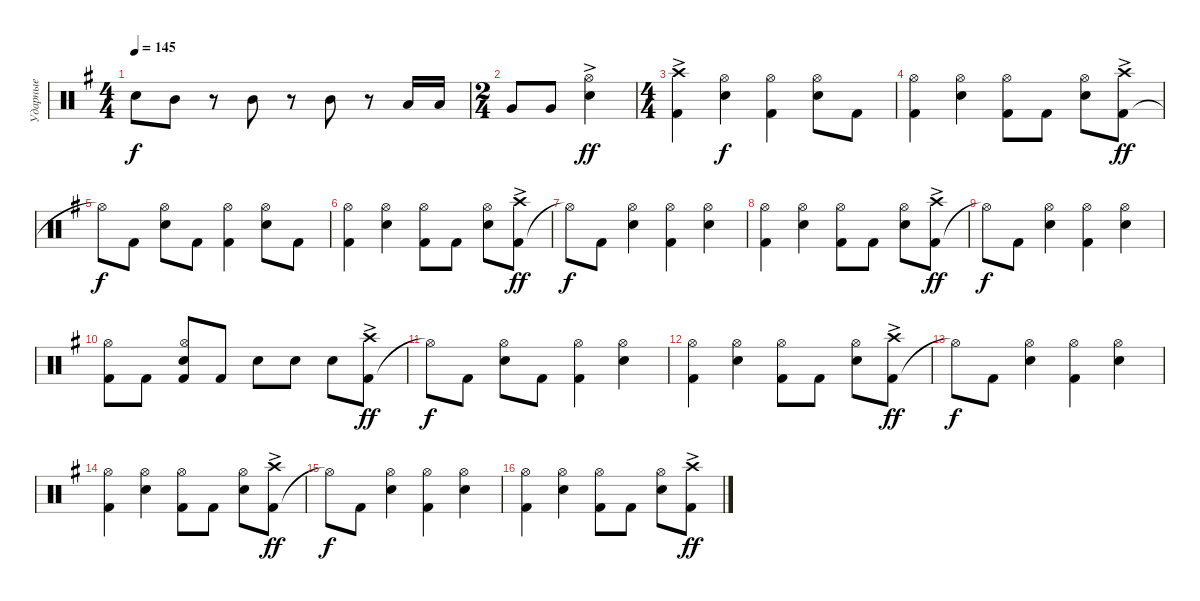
\track ("Ударные" "Ударные") {instrument percussion}
\staff {score}
\articulation defaults
\ts (4 4)
\tempo 145
\clef neutral
\ks g "Snare (hit) 2".8{dy f} "Mid Tom (hit)".8
r.8 "Mid Tom (hit)".8 r.8 "Mid Tom (hit)".8 r.8 "Low Tom (hit)".16 "Low Tom (hit)".16 |
\ts (2 4)
"Very Low Tom (hit)".8 "Very Low Tom (hit)".8 ("Snare (hit) 2" "Hi-Hat (open)"{ac}).4{dy ff} |
\ts (4 4)
("Kick (hit) 2" "Crash high (hit)"{ac}).4 ("Snare (hit) 2" "Hi-Hat (open)").4{dy f} ("Kick (hit) 2" "Hi-Hat (open)").4 ("Snare (hit) 2" "Hi-Hat (open)").8 "Kick (hit) 2".8 |
("Kick (hit) 2" "Hi-Hat (open)").4 ("Snare (hit) 2" "Hi-Hat (open)").4 ("Kick (hit) 2" "Hi-Hat (open)").8 "Kick (hit) 2".8 ("Snare (hit) 2" "Hi-Hat (open)").8 ("Kick (hit) 2" "Crash high (hit)"{ac}).8{dy ff} |
"Hi-Hat (open)"{t}.8{dy f} "Kick (hit) 2".8 ("Snare (hit) 2" "Hi-Hat (open)").8 "Kick (hit) 2".8 ("Kick (hit) 2" "Hi-Hat (open)").4 ("Snare (hit) 2" "Hi-Hat (open)").8 "Kick (hit) 2".8 |
("Kick (hit) 2" "Hi-Hat (open)").4 ("Snare (hit) 2" "Hi-Hat (open)").4 ("Kick (hit) 2" "Hi-Hat (open)").8 "Kick (hit) 2".8 ("Snare (hit) 2" "Hi-Hat (open)").8 ("Kick (hit) 2" "Crash high (hit)"{ac}).8{dy ff} |
"Hi-Hat (open)"{t}.8{dy f} "Kick (hit) 2".8 ("Snare (hit) 2" "Hi-Hat (open)").4 ("Kick (hit) 2" "Hi-Hat (open)").4 ("Snare (hit) 2" "Hi-Hat (open)").4 |
("Kick (hit) 2" "Hi-Hat (open)").4 ("Snare (hit) 2" "Hi-Hat (open)").4 ("Kick (hit) 2" "Hi-Hat (open)").8 "Kick (hit) 2".8 ("Snare (hit) 2" "Hi-Hat (open)").8 ("Kick (hit) 2" "Crash high (hit)"{ac}).8{dy ff} |
"Hi-Hat (open)"{t}.8{dy f} "Kick (hit) 2".8 ("Snare (hit) 2" "Hi-Hat (open)").4 ("Kick (hit) 2" "Hi-Hat (open)").4 ("Snare (hit) 2" "Hi-Hat (open)").4 |
("Kick (hit) 2" "Hi-Hat (open)").8 "Kick (hit) 2".8 ("Kick (hit) 2" "Snare (hit) 2" "Hi-Hat (open)").8 "Kick (hit) 2".8 "Snare (hit) 2".8 "Snare (hit) 2".8 "Snare (hit) 2".8 ("Kick (hit) 2" "Crash high (hit)"{ac}).8{dy ff} |
"Hi-Hat (open)"{t}.8{dy f} "Kick (hit) 2".8 ("Snare (hit) 2" "Hi-Hat (open)").8 "Kick (hit) 2".8 ("Kick (hit) 2" "Hi-Hat (open)").4 ("Snare (hit) 2" "Hi-Hat (open)").4 |
("Kick (hit) 2" "Hi-Hat (open)").4 ("Snare (hit) 2" "Hi-Hat (open)").4 ("Kick (hit) 2" "Hi-Hat (open)").8 "Kick (hit) 2".8 ("Snare (hit) 2" "Hi-Hat (open)").8 ("Kick (hit) 2" "Crash high (hit)"{ac}).8{dy ff} |
"Hi-Hat (open)"{t}.8{dy f} "Kick (hit) 2".8 ("Snare (hit) 2" "Hi-Hat (open)").4 ("Kick (hit) 2" "Hi-Hat (open)").4 ("Snare (hit) 2" "Hi-Hat (open)").4 |
("Kick (hit) 2" "Hi-Hat (open)").4 ("Snare (hit) 2" "Hi-Hat (open)").4 ("Kick (hit) 2" "Hi-Hat (open)").8 "Kick (hit) 2".8 ("Snare (hit) 2" "Hi-Hat (open)").8 ("Kick (hit) 2" "Crash high (hit)"{ac}).8{dy ff} |
"Hi-Hat (open)"{t}.8{dy f} "Kick (hit) 2".8 ("Snare (hit) 2" "Hi-Hat (open)").4 ("Kick (hit) 2" "Hi-Hat (open)").4 ("Snare (hit) 2" "Hi-Hat (open)").4 |
("Kick (hit) 2" "Hi-Hat (open)").4 ("Snare (hit) 2" "Hi-Hat (open)").4 ("Kick (hit) 2" "Hi-Hat (open)").8 "Kick (hit) 2".8 ("Snare (hit) 2" "Hi-Hat (open)").8 ("Kick (hit) 2" "Crash high (hit)"{ac}).8{dy ff}
